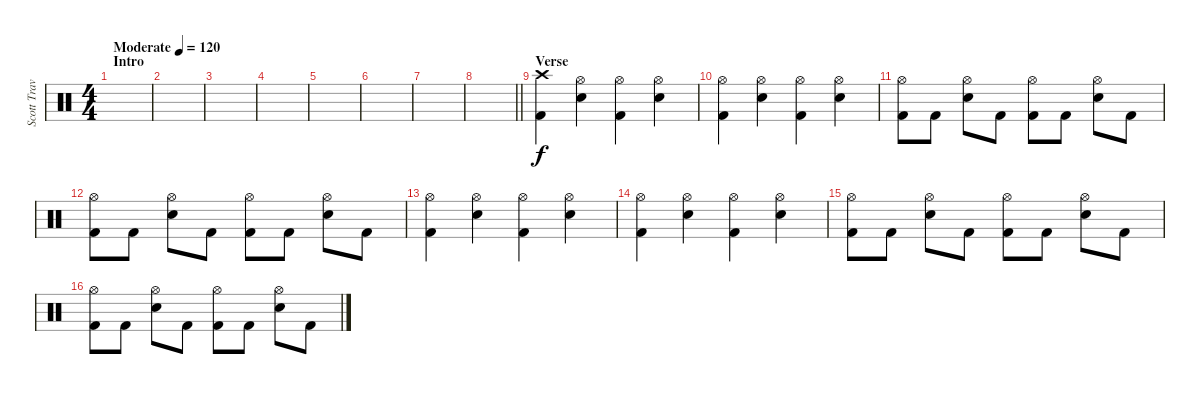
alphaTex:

\track ("Scott Travis" "Scott Trav") {instrument percussion}
\staff {score}
\articulation defaults
\ts (4 4)
\section ("" "Intro")
\tempo (120 "Moderate")
\clef neutral
\ks c
|
|
|
|
|
|
|
\barLineRight lightlight
|
\section ("" "Verse")
("Crash high (hit)" "Kick (hit) 2").4 ("Hi-Hat (open)" "Snare (hit) 2").4 ("Hi-Hat (open)" "Kick (hit) 2").4 ("Hi-Hat (open)" "Snare (hit) 2").4 |
("Hi-Hat (open)" "Kick (hit) 2").4 ("Hi-Hat (open)" "Snare (hit) 2").4 ("Hi-Hat (open)" "Kick (hit) 2").4 ("Hi-Hat (open)" "Snare (hit) 2").4 |
("Hi-Hat (open)" "Kick (hit) 2").8 "Kick (hit) 2".8 ("Hi-Hat (open)" "Snare (hit) 2").8 "Kick (hit) 2".8 ("Hi-Hat (open)" "Kick (hit) 2").8 "Kick (hit) 2".8 ("Hi-Hat (open)" "Snare (hit) 2").8 "Kick (hit) 2".8 |
("Hi-Hat (open)" "Kick (hit) 2").8 "Kick (hit) 2".8 ("Hi-Hat (open)" "Snare (hit) 2").8 "Kick (hit) 2".8 ("Hi-Hat (open)" "Kick (hit) 2").8 "Kick (hit) 2".8 ("Hi-Hat (open)" "Snare (hit) 2").8 "Kick (hit) 2".8 |
("Hi-Hat (open)" "Kick (hit) 2").4 ("Hi-Hat (open)" "Snare (hit) 2").4 ("Hi-Hat (open)" "Kick (hit) 2").4 ("Hi-Hat (open)" "Snare (hit) 2").4 |
("Hi-Hat (open)" "Kick (hit) 2").4 ("Hi-Hat (open)" "Snare (hit) 2").4 ("Hi-Hat (open)" "Kick (hit) 2").4 ("Hi-Hat (open)" "Snare (hit) 2").4 |
("Hi-Hat (open)" "Kick (hit) 2").8 "Kick (hit) 2".8 ("Hi-Hat (open)" "Snare (hit) 2").8 "Kick (hit) 2".8 ("Hi-Hat (open)" "Kick (hit) 2").8 "Kick (hit) 2".8 ("Hi-Hat (open)" "Snare (hit) 2").8 "Kick (hit) 2".8 |
("Hi-Hat (open)" "Kick (hit) 2").8 "Kick (hit) 2".8 ("Hi-Hat (open)" "Snare (hit) 2").8 "Kick (hit) 2".8 ("Hi-Hat (open)" "Kick (hit) 2").8 "Kick (hit) 2".8 ("Hi-Hat (open)" "Snare (hit) 2").8 "Kick (hit) 2".8
